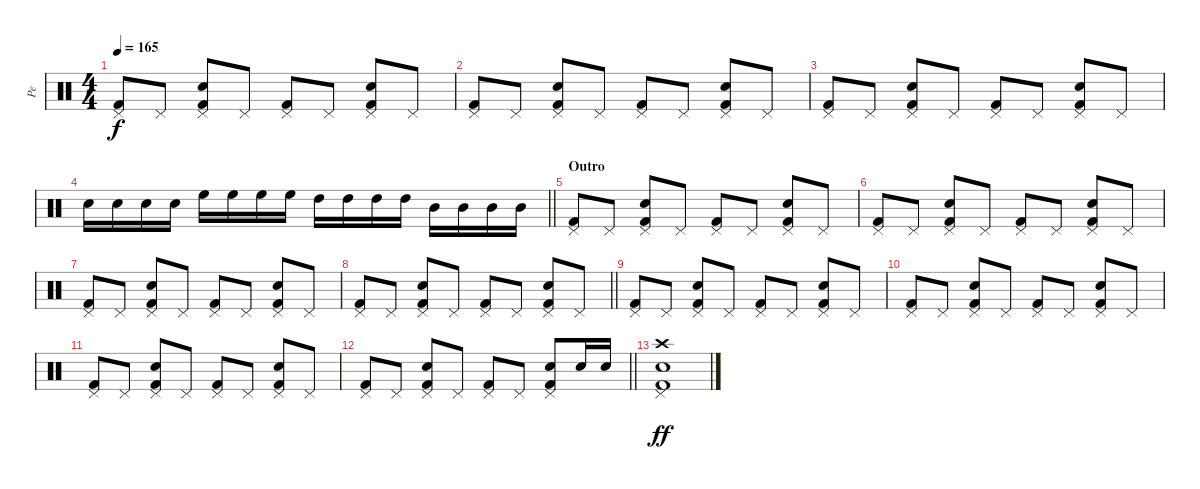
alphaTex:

\track ("Pe" "Pe") {instrument percussion}
\staff {score}
\articulation defaults
\ts (4 4)
\tempo 165
\clef neutral
\ks c
("Pedal Hi-Hat (hit)" "Kick (hit) 2").8{dy f} "Pedal Hi-Hat (hit)".8 ("Electric Snare (hit)" "Pedal Hi-Hat (hit)" "Kick (hit) 2").8 "Pedal Hi-Hat (hit)".8 ("Pedal Hi-Hat (hit)" "Kick (hit) 2").8 "Pedal Hi-Hat (hit)".8 ("Electric Snare (hit)" "Pedal Hi-Hat (hit)" "Kick (hit) 2").8 "Pedal Hi-Hat (hit)".8 |
("Pedal Hi-Hat (hit)" "Kick (hit) 2").8 "Pedal Hi-Hat (hit)".8 ("Electric Snare (hit)" "Pedal Hi-Hat (hit)" "Kick (hit) 2").8 "Pedal Hi-Hat (hit)".8 ("Pedal Hi-Hat (hit)" "Kick (hit) 2").8 "Pedal Hi-Hat (hit)".8 ("Electric Snare (hit)" "Pedal Hi-Hat (hit)" "Kick (hit) 2").8 "Pedal Hi-Hat (hit)".8 |
("Pedal Hi-Hat (hit)" "Kick (hit) 2").8 "Pedal Hi-Hat (hit)".8 ("Electric Snare (hit)" "Pedal Hi-Hat (hit)" "Kick (hit) 2").8 "Pedal Hi-Hat (hit)".8 ("Pedal Hi-Hat (hit)" "Kick (hit) 2").8 "Pedal Hi-Hat (hit)".8 ("Electric Snare (hit)" "Pedal Hi-Hat (hit)" "Kick (hit) 2").8 "Pedal Hi-Hat (hit)".8 |
\barLineRight lightlight "Electric Snare (hit)".16 "Electric Snare (hit)".16 "Electric Snare (hit)".16 "Electric Snare (hit)".16 "High Floor Tom (hit)".16 "High Floor Tom (hit)".16 "High Floor Tom (hit)".16 "High Floor Tom (hit)".16 "High Tom (hit)".16 "High Tom (hit)".16 "High Tom (hit)".16 "High Tom (hit)".16 "Mid Tom (hit)".16 "Mid Tom (hit)".16 "Mid Tom (hit)".16 "Mid Tom (hit)".16
|
\section ("" "Outro")
("Pedal Hi-Hat (hit)" "Kick (hit) 2").8 "Pedal Hi-Hat (hit)".8 ("Electric Snare (hit)" "Pedal Hi-Hat (hit)" "Kick (hit) 2").8 "Pedal Hi-Hat (hit)".8 ("Pedal Hi-Hat (hit)" "Kick (hit) 2").8 "Pedal Hi-Hat (hit)".8 ("Electric Snare (hit)" "Pedal Hi-Hat (hit)" "Kick (hit) 2").8 "Pedal Hi-Hat (hit)".8 |
("Pedal Hi-Hat (hit)" "Kick (hit) 2").8 "Pedal Hi-Hat (hit)".8 ("Electric Snare (hit)" "Pedal Hi-Hat (hit)" "Kick (hit) 2").8 "Pedal Hi-Hat (hit)".8 ("Pedal Hi-Hat (hit)" "Kick (hit) 2").8 "Pedal Hi-Hat (hit)".8 ("Electric Snare (hit)" "Pedal Hi-Hat (hit)" "Kick (hit) 2").8 "Pedal Hi-Hat (hit)".8 |
("Pedal Hi-Hat (hit)" "Kick (hit) 2").8 "Pedal Hi-Hat (hit)".8 ("Electric Snare (hit)" "Pedal Hi-Hat (hit)" "Kick (hit) 2").8 "Pedal Hi-Hat (hit)".8 ("Pedal Hi-Hat (hit)" "Kick (hit) 2").8 "Pedal Hi-Hat (hit)".8 ("Electric Snare (hit)" "Pedal Hi-Hat (hit)" "Kick (hit) 2").8 "Pedal Hi-Hat (hit)".8 |
\barLineRight lightlight
("Pedal Hi-Hat (hit)" "Kick (hit) 2").8 "Pedal Hi-Hat (hit)".8 ("Electric Snare (hit)" "Pedal Hi-Hat (hit)" "Kick (hit) 2").8 "Pedal Hi-Hat (hit)".8 ("Pedal Hi-Hat (hit)" "Kick (hit) 2").8 "Pedal Hi-Hat (hit)".8 ("Electric Snare (hit)" "Pedal Hi-Hat (hit)" "Kick (hit) 2").8 "Pedal Hi-Hat (hit)".8 |
("Pedal Hi-Hat (hit)" "Kick (hit) 2").8 "Pedal Hi-Hat (hit)".8 ("Electric Snare (hit)" "Pedal Hi-Hat (hit)" "Kick (hit) 2").8 "Pedal Hi-Hat (hit)".8 ("Pedal Hi-Hat (hit)" "Kick (hit) 2").8 "Pedal Hi-Hat (hit)".8 ("Electric Snare (hit)" "Pedal Hi-Hat (hit)" "Kick (hit) 2").8 "Pedal Hi-Hat (hit)".8 |
("Pedal Hi-Hat (hit)" "Kick (hit) 2").8 "Pedal Hi-Hat (hit)".8 ("Electric Snare (hit)" "Pedal Hi-Hat (hit)" "Kick (hit) 2").8 "Pedal Hi-Hat (hit)".8 ("Pedal Hi-Hat (hit)" "Kick (hit) 2").8 "Pedal Hi-Hat (hit)".8 ("Electric Snare (hit)" "Pedal Hi-Hat (hit)" "Kick (hit) 2").8 "Pedal Hi-Hat (hit)".8 |
("Pedal Hi-Hat (hit)" "Kick (hit) 2").8 "Pedal Hi-Hat (hit)".8 ("Electric Snare (hit)" "Pedal Hi-Hat (hit)" "Kick (hit) 2").8 "Pedal Hi-Hat (hit)".8 ("Pedal Hi-Hat (hit)" "Kick (hit) 2").8 "Pedal Hi-Hat (hit)".8 ("Electric Snare (hit)" "Pedal Hi-Hat (hit)" "Kick (hit) 2").8 "Pedal Hi-Hat (hit)".8 |
\barLineRight lightlight
("Pedal Hi-Hat (hit)" "Kick (hit) 2").8 "Pedal Hi-Hat (hit)".8 ("Electric Snare (hit)" "Pedal Hi-Hat (hit)" "Kick (hit) 2").8 "Pedal Hi-Hat (hit)".8 ("Pedal Hi-Hat (hit)" "Kick (hit) 2").8 "Pedal Hi-Hat (hit)".8 ("Electric Snare (hit)" "Pedal Hi-Hat (hit)" "Kick (hit) 2").8 "Electric Snare (hit)".16 "Electric Snare (hit)".16 |
("Electric Snare (hit)" "Pedal Hi-Hat (hit)" "Kick (hit) 2" "Crash high (hit)").1{dy ff}
